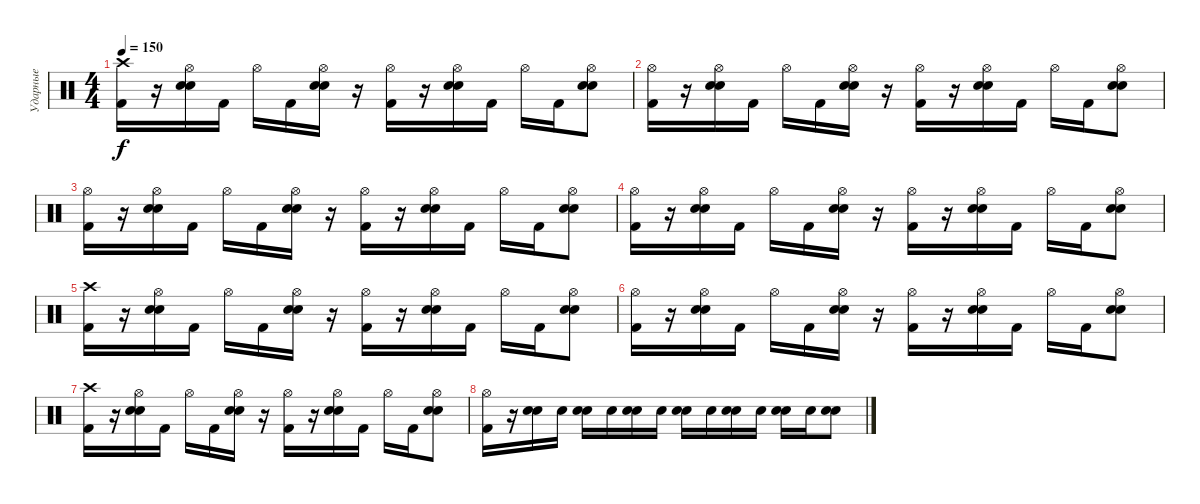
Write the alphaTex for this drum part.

\track ("Ударные" "Ударные") {instrument percussion}
\staff {score}
\articulation defaults
\ts (4 4)
\tempo 150
\clef neutral
\ks c
("Crash high (hit)" "Kick (hit) 2").16{dy f} r.16 ("Hi-Hat (open)" "Electric Snare (hit)" "Snare (hit) 2").16 "Kick (hit) 2".16 "Hi-Hat (open)".16 "Kick (hit) 2".16 ("Hi-Hat (open)" "Electric Snare (hit)" "Snare (hit) 2").16 r.16 ("Hi-Hat (open)" "Kick (hit) 2").16 r.16 ("Hi-Hat (open)" "Electric Snare (hit)" "Snare (hit) 2").16 "Kick (hit) 2".16 "Hi-Hat (open)".16 "Kick (hit) 2".16 ("Hi-Hat (open)" "Electric Snare (hit)" "Snare (hit) 2").8 |
("Hi-Hat (open)" "Kick (hit) 2").16 r.16 ("Hi-Hat (open)" "Electric Snare (hit)" "Snare (hit) 2").16 "Kick (hit) 2".16 "Hi-Hat (open)".16 "Kick (hit) 2".16 ("Hi-Hat (open)" "Electric Snare (hit)" "Snare (hit) 2").16 r.16 ("Hi-Hat (open)" "Kick (hit) 2").16 r.16 ("Hi-Hat (open)" "Electric Snare (hit)" "Snare (hit) 2").16 "Kick (hit) 2".16 "Hi-Hat (open)".16 "Kick (hit) 2".16 ("Hi-Hat (open)" "Electric Snare (hit)" "Snare (hit) 2").8 |
("Hi-Hat (open)" "Kick (hit) 2").16 r.16 ("Hi-Hat (open)" "Electric Snare (hit)" "Snare (hit) 2").16 "Kick (hit) 2".16 "Hi-Hat (open)".16 "Kick (hit) 2".16 ("Hi-Hat (open)" "Electric Snare (hit)" "Snare (hit) 2").16 r.16 ("Hi-Hat (open)" "Kick (hit) 2").16 r.16 ("Hi-Hat (open)" "Electric Snare (hit)" "Snare (hit) 2").16 "Kick (hit) 2".16 "Hi-Hat (open)".16 "Kick (hit) 2".16 ("Hi-Hat (open)" "Electric Snare (hit)" "Snare (hit) 2").8 |
("Hi-Hat (open)" "Kick (hit) 2").16 r.16 ("Hi-Hat (open)" "Electric Snare (hit)" "Snare (hit) 2").16 "Kick (hit) 2".16 "Hi-Hat (open)".16 "Kick (hit) 2".16 ("Hi-Hat (open)" "Electric Snare (hit)" "Snare (hit) 2").16 r.16 ("Hi-Hat (open)" "Kick (hit) 2").16 r.16 ("Hi-Hat (open)" "Electric Snare (hit)" "Snare (hit) 2").16 "Kick (hit) 2".16 "Hi-Hat (open)".16 "Kick (hit) 2".16 ("Hi-Hat (open)" "Electric Snare (hit)" "Snare (hit) 2").8 |
("Crash high (hit)" "Kick (hit) 2").16 r.16 ("Hi-Hat (open)" "Electric Snare (hit)" "Snare (hit) 2").16 "Kick (hit) 2".16 "Hi-Hat (open)".16 "Kick (hit) 2".16 ("Hi-Hat (open)" "Electric Snare (hit)" "Snare (hit) 2").16 r.16 ("Hi-Hat (open)" "Kick (hit) 2").16 r.16 ("Hi-Hat (open)" "Electric Snare (hit)" "Snare (hit) 2").16 "Kick (hit) 2".16 "Hi-Hat (open)".16 "Kick (hit) 2".16 ("Hi-Hat (open)" "Electric Snare (hit)" "Snare (hit) 2").8 |
("Hi-Hat (open)" "Kick (hit) 2").16 r.16 ("Hi-Hat (open)" "Electric Snare (hit)" "Snare (hit) 2").16 "Kick (hit) 2".16 "Hi-Hat (open)".16 "Kick (hit) 2".16 ("Hi-Hat (open)" "Electric Snare (hit)" "Snare (hit) 2").16 r.16 ("Hi-Hat (open)" "Kick (hit) 2").16 r.16 ("Hi-Hat (open)" "Electric Snare (hit)" "Snare (hit) 2").16 "Kick (hit) 2".16 "Hi-Hat (open)".16 "Kick (hit) 2".16 ("Hi-Hat (open)" "Electric Snare (hit)" "Snare (hit) 2").8 |
("Crash high (hit)" "Kick (hit) 2").16 r.16 ("Hi-Hat (open)" "Electric Snare (hit)" "Snare (hit) 2").16 "Kick (hit) 2".16 "Hi-Hat (open)".16 "Kick (hit) 2".16 ("Hi-Hat (open)" "Electric Snare (hit)" "Snare (hit) 2").16 r.16 ("Hi-Hat (open)" "Kick (hit) 2").16 r.16 ("Hi-Hat (open)" "Electric Snare (hit)" "Snare (hit) 2").16 "Kick (hit) 2".16 "Hi-Hat (open)".16 "Kick (hit) 2".16 ("Hi-Hat (open)" "Electric Snare (hit)" "Snare (hit) 2").8 |
("Hi-Hat (open)" "Kick (hit) 2").16 r.16 ("Electric Snare (hit)" "Snare (hit) 2").16 "Electric Snare (hit)".16 ("Electric Snare (hit)" "Snare (hit) 2").16 "Electric Snare (hit)".16 ("Electric Snare (hit)" "Snare (hit) 2").16 "Electric Snare (hit)".16 ("Electric Snare (hit)" "Snare (hit) 2").16 "Electric Snare (hit)".16 ("Electric Snare (hit)" "Snare (hit) 2").16 "Electric Snare (hit)".16 ("Electric Snare (hit)" "Snare (hit) 2").16 "Electric Snare (hit)".16 ("Electric Snare (hit)" "Snare (hit) 2").8
